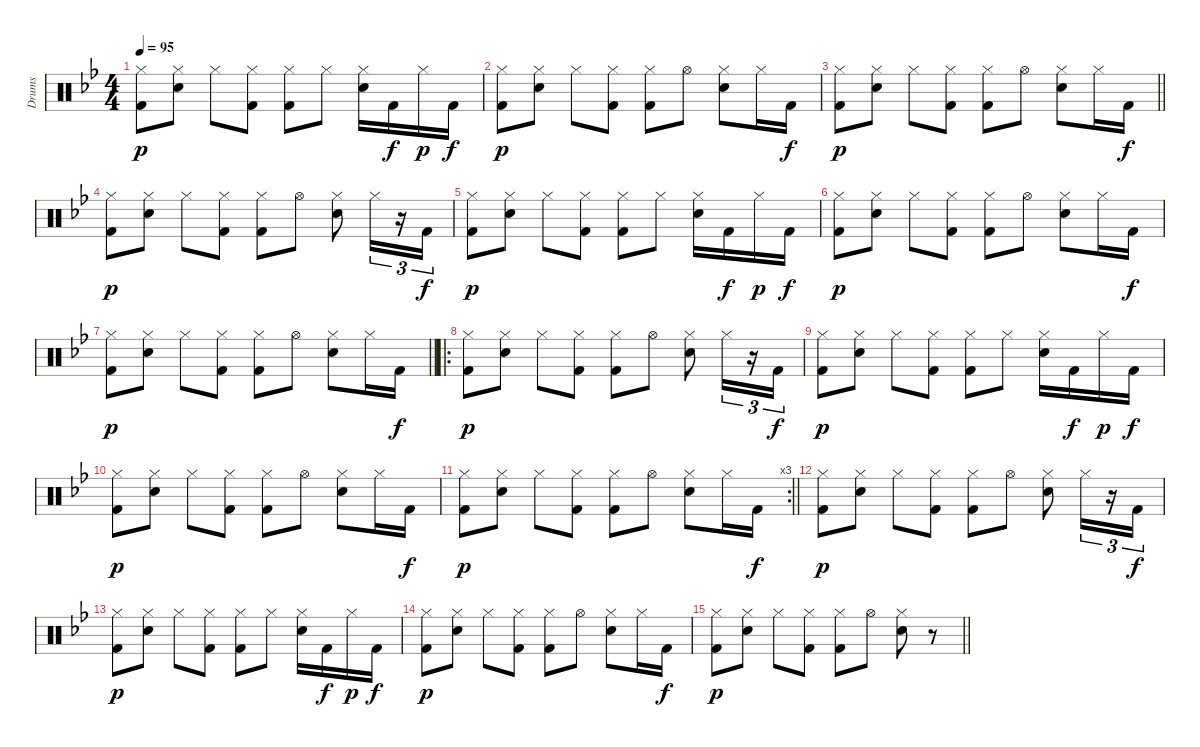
\track ("Drums" "Drums") {instrument percussion}
\staff {score}
\articulation defaults
\ts (4 4)
\tempo 95
\clef neutral
\ks gminor
("Hi-Hat (closed)" "Kick (hit) 2").8{dy p} ("Hi-Hat (closed)" "Electric Snare (hit)").8 "Hi-Hat (closed)".8 ("Hi-Hat (closed)" "Kick (hit) 2").8 ("Hi-Hat (closed)" "Kick (hit) 2").8 "Hi-Hat (closed)".8 ("Hi-Hat (closed)" "Electric Snare (hit)").16 "Kick (hit) 2".16{dy f} "Hi-Hat (closed)".16{dy p} "Kick (hit) 2".16{dy f} |
("Hi-Hat (closed)" "Kick (hit) 2").8{dy p} ("Hi-Hat (closed)" "Electric Snare (hit)").8 "Hi-Hat (closed)".8 ("Hi-Hat (closed)" "Kick (hit) 2").8 ("Hi-Hat (closed)" "Kick (hit) 2").8 "Hi-Hat (open)".8 ("Hi-Hat (closed)" "Electric Snare (hit)").8 "Hi-Hat (closed)".16 "Kick (hit) 2".16{dy f} |
\barLineRight lightlight
("Hi-Hat (closed)" "Kick (hit) 2").8{dy p} ("Hi-Hat (closed)" "Electric Snare (hit)").8 "Hi-Hat (closed)".8 ("Hi-Hat (closed)" "Kick (hit) 2").8 ("Hi-Hat (closed)" "Kick (hit) 2").8 "Hi-Hat (open)".8 ("Hi-Hat (closed)" "Electric Snare (hit)").8 "Hi-Hat (closed)".16 "Kick (hit) 2".16{dy f} |
("Hi-Hat (closed)" "Kick (hit) 2").8{dy p} ("Hi-Hat (closed)" "Electric Snare (hit)").8 "Hi-Hat (closed)".8 ("Hi-Hat (closed)" "Kick (hit) 2").8 ("Hi-Hat (closed)" "Kick (hit) 2").8 "Hi-Hat (open)".8 ("Hi-Hat (closed)" "Electric Snare (hit)").8 "Hi-Hat (closed)".16{tu (3 2)} r.16{tu (3 2)} "Kick (hit) 2".16{tu (3 2) dy f} |
("Hi-Hat (closed)" "Kick (hit) 2").8{dy p} ("Hi-Hat (closed)" "Electric Snare (hit)").8 "Hi-Hat (closed)".8 ("Hi-Hat (closed)" "Kick (hit) 2").8 ("Hi-Hat (closed)" "Kick (hit) 2").8 "Hi-Hat (closed)".8 ("Hi-Hat (closed)" "Electric Snare (hit)").16 "Kick (hit) 2".16{dy f} "Hi-Hat (closed)".16{dy p} "Kick (hit) 2".16{dy f} |
("Hi-Hat (closed)" "Kick (hit) 2").8{dy p} ("Hi-Hat (closed)" "Electric Snare (hit)").8 "Hi-Hat (closed)".8 ("Hi-Hat (closed)" "Kick (hit) 2").8 ("Hi-Hat (closed)" "Kick (hit) 2").8 "Hi-Hat (open)".8 ("Hi-Hat (closed)" "Electric Snare (hit)").8 "Hi-Hat (closed)".16 "Kick (hit) 2".16{dy f} |
\barLineRight lightlight
("Hi-Hat (closed)" "Kick (hit) 2").8{dy p} ("Hi-Hat (closed)" "Electric Snare (hit)").8 "Hi-Hat (closed)".8 ("Hi-Hat (closed)" "Kick (hit) 2").8 ("Hi-Hat (closed)" "Kick (hit) 2").8 "Hi-Hat (open)".8 ("Hi-Hat (closed)" "Electric Snare (hit)").8 "Hi-Hat (closed)".16 "Kick (hit) 2".16{dy f} |
\ro
("Hi-Hat (closed)" "Kick (hit) 2").8{dy p} ("Hi-Hat (closed)" "Electric Snare (hit)").8 "Hi-Hat (closed)".8 ("Hi-Hat (closed)" "Kick (hit) 2").8 ("Hi-Hat (closed)" "Kick (hit) 2").8 "Hi-Hat (open)".8 ("Hi-Hat (closed)" "Electric Snare (hit)").8 "Hi-Hat (closed)".16{tu (3 2)} r.16{tu (3 2)} "Kick (hit) 2".16{tu (3 2) dy f} |
("Hi-Hat (closed)" "Kick (hit) 2").8{dy p} ("Hi-Hat (closed)" "Electric Snare (hit)").8 "Hi-Hat (closed)".8 ("Hi-Hat (closed)" "Kick (hit) 2").8 ("Hi-Hat (closed)" "Kick (hit) 2").8 "Hi-Hat (closed)".8 ("Hi-Hat (closed)" "Electric Snare (hit)").16 "Kick (hit) 2".16{dy f} "Hi-Hat (closed)".16{dy p} "Kick (hit) 2".16{dy f} |
("Hi-Hat (closed)" "Kick (hit) 2").8{dy p} ("Hi-Hat (closed)" "Electric Snare (hit)").8 "Hi-Hat (closed)".8 ("Hi-Hat (closed)" "Kick (hit) 2").8 ("Hi-Hat (closed)" "Kick (hit) 2").8 "Hi-Hat (open)".8 ("Hi-Hat (closed)" "Electric Snare (hit)").8 "Hi-Hat (closed)".16 "Kick (hit) 2".16{dy f} |
\rc 3
\barLineRight lightlight
("Hi-Hat (closed)" "Kick (hit) 2").8{dy p} ("Hi-Hat (closed)" "Electric Snare (hit)").8 "Hi-Hat (closed)".8 ("Hi-Hat (closed)" "Kick (hit) 2").8 ("Hi-Hat (closed)" "Kick (hit) 2").8 "Hi-Hat (open)".8 ("Hi-Hat (closed)" "Electric Snare (hit)").8 "Hi-Hat (closed)".16 "Kick (hit) 2".16{dy f} |
("Hi-Hat (closed)" "Kick (hit) 2").8{dy p} ("Hi-Hat (closed)" "Electric Snare (hit)").8 "Hi-Hat (closed)".8 ("Hi-Hat (closed)" "Kick (hit) 2").8 ("Hi-Hat (closed)" "Kick (hit) 2").8 "Hi-Hat (open)".8 ("Hi-Hat (closed)" "Electric Snare (hit)").8 "Hi-Hat (closed)".16{tu (3 2)} r.16{tu (3 2)} "Kick (hit) 2".16{tu (3 2) dy f} |
("Hi-Hat (closed)" "Kick (hit) 2").8{dy p} ("Hi-Hat (closed)" "Electric Snare (hit)").8 "Hi-Hat (closed)".8 ("Hi-Hat (closed)" "Kick (hit) 2").8 ("Hi-Hat (closed)" "Kick (hit) 2").8 "Hi-Hat (closed)".8 ("Hi-Hat (closed)" "Electric Snare (hit)").16 "Kick (hit) 2".16{dy f} "Hi-Hat (closed)".16{dy p} "Kick (hit) 2".16{dy f} |
("Hi-Hat (closed)" "Kick (hit) 2").8{dy p} ("Hi-Hat (closed)" "Electric Snare (hit)").8 "Hi-Hat (closed)".8 ("Hi-Hat (closed)" "Kick (hit) 2").8 ("Hi-Hat (closed)" "Kick (hit) 2").8 "Hi-Hat (open)".8 ("Hi-Hat (closed)" "Electric Snare (hit)").8 "Hi-Hat (closed)".16 "Kick (hit) 2".16{dy f} |
\barLineRight lightlight
("Hi-Hat (closed)" "Kick (hit) 2").8{dy p} ("Hi-Hat (closed)" "Electric Snare (hit)").8 "Hi-Hat (closed)".8 ("Hi-Hat (closed)" "Kick (hit) 2").8 ("Hi-Hat (closed)" "Kick (hit) 2").8 "Hi-Hat (open)".8 ("Hi-Hat (closed)" "Electric Snare (hit)").8 r.8
